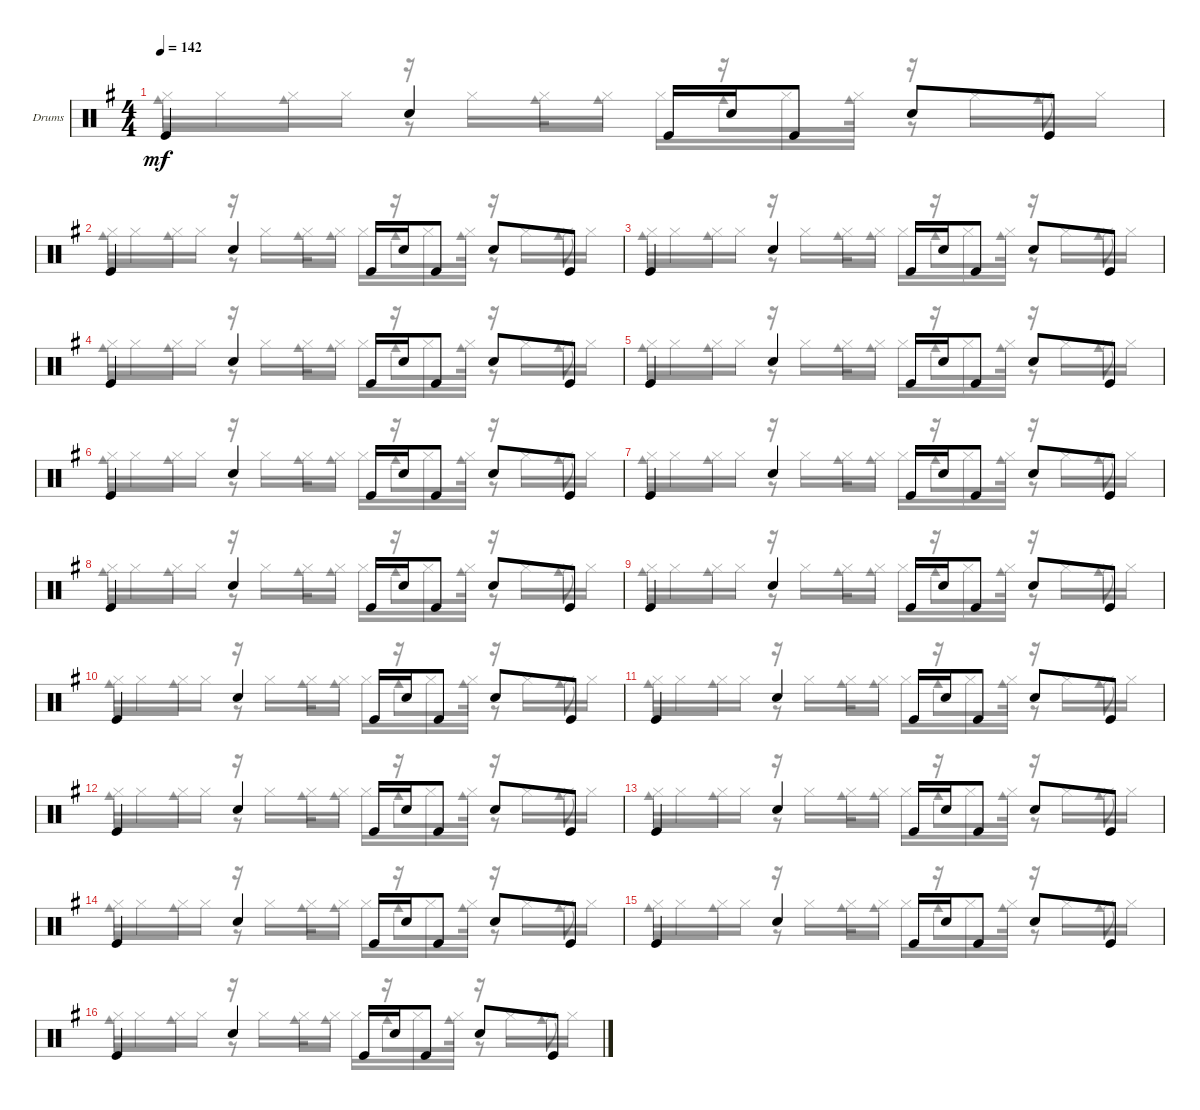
\bracketExtendMode groupsimilarinstruments
\firstSystemTrackNameOrientation horizontal
\otherSystemsTrackNameOrientation horizontal
\track ("Drumkit" "Drums") {instrument percussion}
\staff {score}
\articulation defaults
\voice
\ts (4 4)
\tempo 142
\clef neutral
\ks eminor "Kick (hit)".4{dy mf} "Snare (hit) 2".4 "Kick (hit)".16 "Snare (hit) 2".16 "Kick (hit)".8 "Snare (hit) 2".8 "Kick (hit)".8
|
"Kick (hit)".4 "Snare (hit) 2".4 "Kick (hit)".16 "Snare (hit) 2".16 "Kick (hit)".8 "Snare (hit) 2".8 "Kick (hit)".8 |
"Kick (hit)".4 "Snare (hit) 2".4 "Kick (hit)".16 "Snare (hit) 2".16 "Kick (hit)".8 "Snare (hit) 2".8 "Kick (hit)".8 |
"Kick (hit)".4 "Snare (hit) 2".4 "Kick (hit)".16 "Snare (hit) 2".16 "Kick (hit)".8 "Snare (hit) 2".8 "Kick (hit)".8 |
"Kick (hit)".4 "Snare (hit) 2".4 "Kick (hit)".16 "Snare (hit) 2".16 "Kick (hit)".8 "Snare (hit) 2".8 "Kick (hit)".8 |
"Kick (hit)".4 "Snare (hit) 2".4 "Kick (hit)".16 "Snare (hit) 2".16 "Kick (hit)".8 "Snare (hit) 2".8 "Kick (hit)".8 |
"Kick (hit)".4 "Snare (hit) 2".4 "Kick (hit)".16 "Snare (hit) 2".16 "Kick (hit)".8 "Snare (hit) 2".8 "Kick (hit)".8 |
"Kick (hit)".4 "Snare (hit) 2".4 "Kick (hit)".16 "Snare (hit) 2".16 "Kick (hit)".8 "Snare (hit) 2".8 "Kick (hit)".8 |
"Kick (hit)".4 "Snare (hit) 2".4 "Kick (hit)".16 "Snare (hit) 2".16 "Kick (hit)".8 "Snare (hit) 2".8 "Kick (hit)".8 |
"Kick (hit)".4 "Snare (hit) 2".4 "Kick (hit)".16 "Snare (hit) 2".16 "Kick (hit)".8 "Snare (hit) 2".8 "Kick (hit)".8 |
"Kick (hit)".4 "Snare (hit) 2".4 "Kick (hit)".16 "Snare (hit) 2".16 "Kick (hit)".8 "Snare (hit) 2".8 "Kick (hit)".8 |
"Kick (hit)".4 "Snare (hit) 2".4 "Kick (hit)".16 "Snare (hit) 2".16 "Kick (hit)".8 "Snare (hit) 2".8 "Kick (hit)".8 |
"Kick (hit)".4 "Snare (hit) 2".4 "Kick (hit)".16 "Snare (hit) 2".16 "Kick (hit)".8 "Snare (hit) 2".8 "Kick (hit)".8 |
"Kick (hit)".4 "Snare (hit) 2".4 "Kick (hit)".16 "Snare (hit) 2".16 "Kick (hit)".8 "Snare (hit) 2".8 "Kick (hit)".8 |
"Kick (hit)".4 "Snare (hit) 2".4 "Kick (hit)".16 "Snare (hit) 2".16 "Kick (hit)".8 "Snare (hit) 2".8 "Kick (hit)".8 |
"Kick (hit)".4 "Snare (hit) 2".4 "Kick (hit)".16 "Snare (hit) 2".16 "Kick (hit)".8 "Snare (hit) 2".8 "Kick (hit)".8
\voice
\clef neutral
\ottava regular
\simile none
\ks eminor "Hi-Hat (closed)".16{dy mf} "Hi-Hat (closed)".16 "Hi-Hat (closed)".16 "Hi-Hat (closed)".16
r.16 "Hi-Hat (closed)".16 "Hi-Hat (closed)".16 "Hi-Hat (closed)".16 "Hi-Hat (closed)".16 r.16 "Hi-Hat (closed)".16 "Hi-Hat (closed)".16 r.16 "Hi-Hat (closed)".16 "Hi-Hat (closed)".16 "Hi-Hat (closed)".16 |
"Hi-Hat (closed)".16 "Hi-Hat (closed)".16 "Hi-Hat (closed)".16 "Hi-Hat (closed)".16 r.16 "Hi-Hat (closed)".16 "Hi-Hat (closed)".16 "Hi-Hat (closed)".16 "Hi-Hat (closed)".16 r.16 "Hi-Hat (closed)".16 "Hi-Hat (closed)".16 r.16 "Hi-Hat (closed)".16 "Hi-Hat (closed)".16 "Hi-Hat (closed)".16 |
"Hi-Hat (closed)".16 "Hi-Hat (closed)".16 "Hi-Hat (closed)".16 "Hi-Hat (closed)".16 r.16 "Hi-Hat (closed)".16 "Hi-Hat (closed)".16 "Hi-Hat (closed)".16 "Hi-Hat (closed)".16 r.16 "Hi-Hat (closed)".16 "Hi-Hat (closed)".16 r.16 "Hi-Hat (closed)".16 "Hi-Hat (closed)".16 "Hi-Hat (closed)".16 |
"Hi-Hat (closed)".16 "Hi-Hat (closed)".16 "Hi-Hat (closed)".16 "Hi-Hat (closed)".16 r.16 "Hi-Hat (closed)".16 "Hi-Hat (closed)".16 "Hi-Hat (closed)".16 "Hi-Hat (closed)".16 r.16 "Hi-Hat (closed)".16 "Hi-Hat (closed)".16 r.16 "Hi-Hat (closed)".16 "Hi-Hat (closed)".16 "Hi-Hat (closed)".16 |
"Hi-Hat (closed)".16 "Hi-Hat (closed)".16 "Hi-Hat (closed)".16 "Hi-Hat (closed)".16 r.16 "Hi-Hat (closed)".16 "Hi-Hat (closed)".16 "Hi-Hat (closed)".16 "Hi-Hat (closed)".16 r.16 "Hi-Hat (closed)".16 "Hi-Hat (closed)".16 r.16 "Hi-Hat (closed)".16 "Hi-Hat (closed)".16 "Hi-Hat (closed)".16 |
"Hi-Hat (closed)".16 "Hi-Hat (closed)".16 "Hi-Hat (closed)".16 "Hi-Hat (closed)".16 r.16 "Hi-Hat (closed)".16 "Hi-Hat (closed)".16 "Hi-Hat (closed)".16 "Hi-Hat (closed)".16 r.16 "Hi-Hat (closed)".16 "Hi-Hat (closed)".16 r.16 "Hi-Hat (closed)".16 "Hi-Hat (closed)".16 "Hi-Hat (closed)".16 |
"Hi-Hat (closed)".16 "Hi-Hat (closed)".16 "Hi-Hat (closed)".16 "Hi-Hat (closed)".16 r.16 "Hi-Hat (closed)".16 "Hi-Hat (closed)".16 "Hi-Hat (closed)".16 "Hi-Hat (closed)".16 r.16 "Hi-Hat (closed)".16 "Hi-Hat (closed)".16 r.16 "Hi-Hat (closed)".16 "Hi-Hat (closed)".16 "Hi-Hat (closed)".16 |
"Hi-Hat (closed)".16 "Hi-Hat (closed)".16 "Hi-Hat (closed)".16 "Hi-Hat (closed)".16 r.16 "Hi-Hat (closed)".16 "Hi-Hat (closed)".16 "Hi-Hat (closed)".16 "Hi-Hat (closed)".16 r.16 "Hi-Hat (closed)".16 "Hi-Hat (closed)".16 r.16 "Hi-Hat (closed)".16 "Hi-Hat (closed)".16 "Hi-Hat (closed)".16 |
"Hi-Hat (closed)".16 "Hi-Hat (closed)".16 "Hi-Hat (closed)".16 "Hi-Hat (closed)".16 r.16 "Hi-Hat (closed)".16 "Hi-Hat (closed)".16 "Hi-Hat (closed)".16 "Hi-Hat (closed)".16 r.16 "Hi-Hat (closed)".16 "Hi-Hat (closed)".16 r.16 "Hi-Hat (closed)".16 "Hi-Hat (closed)".16 "Hi-Hat (closed)".16 |
"Hi-Hat (closed)".16 "Hi-Hat (closed)".16 "Hi-Hat (closed)".16 "Hi-Hat (closed)".16 r.16 "Hi-Hat (closed)".16 "Hi-Hat (closed)".16 "Hi-Hat (closed)".16 "Hi-Hat (closed)".16 r.16 "Hi-Hat (closed)".16 "Hi-Hat (closed)".16 r.16 "Hi-Hat (closed)".16 "Hi-Hat (closed)".16 "Hi-Hat (closed)".16 |
"Hi-Hat (closed)".16 "Hi-Hat (closed)".16 "Hi-Hat (closed)".16 "Hi-Hat (closed)".16 r.16 "Hi-Hat (closed)".16 "Hi-Hat (closed)".16 "Hi-Hat (closed)".16 "Hi-Hat (closed)".16 r.16 "Hi-Hat (closed)".16 "Hi-Hat (closed)".16 r.16 "Hi-Hat (closed)".16 "Hi-Hat (closed)".16 "Hi-Hat (closed)".16 |
"Hi-Hat (closed)".16 "Hi-Hat (closed)".16 "Hi-Hat (closed)".16 "Hi-Hat (closed)".16 r.16 "Hi-Hat (closed)".16 "Hi-Hat (closed)".16 "Hi-Hat (closed)".16 "Hi-Hat (closed)".16 r.16 "Hi-Hat (closed)".16 "Hi-Hat (closed)".16 r.16 "Hi-Hat (closed)".16 "Hi-Hat (closed)".16 "Hi-Hat (closed)".16 |
"Hi-Hat (closed)".16 "Hi-Hat (closed)".16 "Hi-Hat (closed)".16 "Hi-Hat (closed)".16 r.16 "Hi-Hat (closed)".16 "Hi-Hat (closed)".16 "Hi-Hat (closed)".16 "Hi-Hat (closed)".16 r.16 "Hi-Hat (closed)".16 "Hi-Hat (closed)".16 r.16 "Hi-Hat (closed)".16 "Hi-Hat (closed)".16 "Hi-Hat (closed)".16 |
"Hi-Hat (closed)".16 "Hi-Hat (closed)".16 "Hi-Hat (closed)".16 "Hi-Hat (closed)".16 r.16 "Hi-Hat (closed)".16 "Hi-Hat (closed)".16 "Hi-Hat (closed)".16 "Hi-Hat (closed)".16 r.16 "Hi-Hat (closed)".16 "Hi-Hat (closed)".16 r.16 "Hi-Hat (closed)".16 "Hi-Hat (closed)".16 "Hi-Hat (closed)".16 |
"Hi-Hat (closed)".16 "Hi-Hat (closed)".16 "Hi-Hat (closed)".16 "Hi-Hat (closed)".16 r.16 "Hi-Hat (closed)".16 "Hi-Hat (closed)".16 "Hi-Hat (closed)".16 "Hi-Hat (closed)".16 r.16 "Hi-Hat (closed)".16 "Hi-Hat (closed)".16 r.16 "Hi-Hat (closed)".16 "Hi-Hat (closed)".16 "Hi-Hat (closed)".16 |
"Hi-Hat (closed)".16 "Hi-Hat (closed)".16 "Hi-Hat (closed)".16 "Hi-Hat (closed)".16 r.16 "Hi-Hat (closed)".16 "Hi-Hat (closed)".16 "Hi-Hat (closed)".16 "Hi-Hat (closed)".16 r.16 "Hi-Hat (closed)".16 "Hi-Hat (closed)".16 r.16 "Hi-Hat (closed)".16 "Hi-Hat (closed)".16 "Hi-Hat (closed)".16
\voice
\clef neutral
\ottava regular
\simile none
\ks eminor "Cowbell medium (hit)".8{dy mf} "Cowbell medium (hit)".8
r.8 "Cowbell medium (hit)".16 "Cowbell medium (hit)".8 "Cowbell medium (hit)".8 "Cowbell medium (hit)".16 r.8 "Cowbell medium (hit)".8 |
"Cowbell medium (hit)".8 "Cowbell medium (hit)".8 r.8 "Cowbell medium (hit)".16 "Cowbell medium (hit)".8 "Cowbell medium (hit)".8 "Cowbell medium (hit)".16 r.8 "Cowbell medium (hit)".8 |
"Cowbell medium (hit)".8 "Cowbell medium (hit)".8 r.8 "Cowbell medium (hit)".16 "Cowbell medium (hit)".8 "Cowbell medium (hit)".8 "Cowbell medium (hit)".16 r.8 "Cowbell medium (hit)".8 |
"Cowbell medium (hit)".8 "Cowbell medium (hit)".8 r.8 "Cowbell medium (hit)".16 "Cowbell medium (hit)".8 "Cowbell medium (hit)".8 "Cowbell medium (hit)".16 r.8 "Cowbell medium (hit)".8 |
"Cowbell medium (hit)".8 "Cowbell medium (hit)".8 r.8 "Cowbell medium (hit)".16 "Cowbell medium (hit)".8 "Cowbell medium (hit)".8 "Cowbell medium (hit)".16 r.8 "Cowbell medium (hit)".8 |
"Cowbell medium (hit)".8 "Cowbell medium (hit)".8 r.8 "Cowbell medium (hit)".16 "Cowbell medium (hit)".8 "Cowbell medium (hit)".8 "Cowbell medium (hit)".16 r.8 "Cowbell medium (hit)".8 |
"Cowbell medium (hit)".8 "Cowbell medium (hit)".8 r.8 "Cowbell medium (hit)".16 "Cowbell medium (hit)".8 "Cowbell medium (hit)".8 "Cowbell medium (hit)".16 r.8 "Cowbell medium (hit)".8 |
"Cowbell medium (hit)".8 "Cowbell medium (hit)".8 r.8 "Cowbell medium (hit)".16 "Cowbell medium (hit)".8 "Cowbell medium (hit)".8 "Cowbell medium (hit)".16 r.8 "Cowbell medium (hit)".8 |
"Cowbell medium (hit)".8 "Cowbell medium (hit)".8 r.8 "Cowbell medium (hit)".16 "Cowbell medium (hit)".8 "Cowbell medium (hit)".8 "Cowbell medium (hit)".16 r.8 "Cowbell medium (hit)".8 |
"Cowbell medium (hit)".8 "Cowbell medium (hit)".8 r.8 "Cowbell medium (hit)".16 "Cowbell medium (hit)".8 "Cowbell medium (hit)".8 "Cowbell medium (hit)".16 r.8 "Cowbell medium (hit)".8 |
"Cowbell medium (hit)".8 "Cowbell medium (hit)".8 r.8 "Cowbell medium (hit)".16 "Cowbell medium (hit)".8 "Cowbell medium (hit)".8 "Cowbell medium (hit)".16 r.8 "Cowbell medium (hit)".8 |
"Cowbell medium (hit)".8 "Cowbell medium (hit)".8 r.8 "Cowbell medium (hit)".16 "Cowbell medium (hit)".8 "Cowbell medium (hit)".8 "Cowbell medium (hit)".16 r.8 "Cowbell medium (hit)".8 |
"Cowbell medium (hit)".8 "Cowbell medium (hit)".8 r.8 "Cowbell medium (hit)".16 "Cowbell medium (hit)".8 "Cowbell medium (hit)".8 "Cowbell medium (hit)".16 r.8 "Cowbell medium (hit)".8 |
"Cowbell medium (hit)".8 "Cowbell medium (hit)".8 r.8 "Cowbell medium (hit)".16 "Cowbell medium (hit)".8 "Cowbell medium (hit)".8 "Cowbell medium (hit)".16 r.8 "Cowbell medium (hit)".8 |
"Cowbell medium (hit)".8 "Cowbell medium (hit)".8 r.8 "Cowbell medium (hit)".16 "Cowbell medium (hit)".8 "Cowbell medium (hit)".8 "Cowbell medium (hit)".16 r.8 "Cowbell medium (hit)".8 |
"Cowbell medium (hit)".8 "Cowbell medium (hit)".8 r.8 "Cowbell medium (hit)".16 "Cowbell medium (hit)".8 "Cowbell medium (hit)".8 "Cowbell medium (hit)".16 r.8 "Cowbell medium (hit)".8
